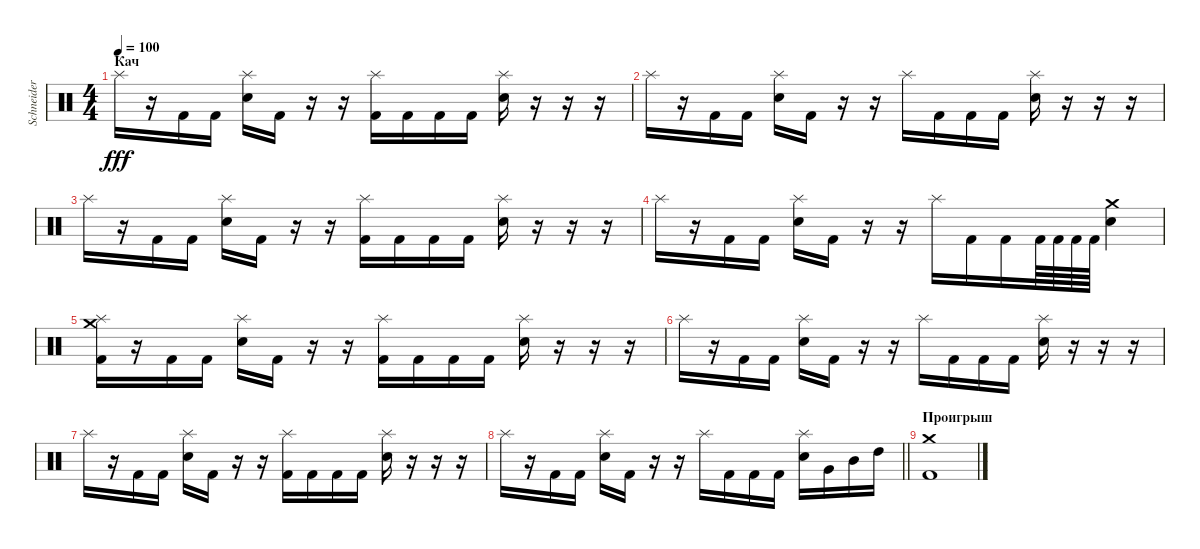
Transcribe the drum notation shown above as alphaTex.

\track ("Schneider" "Schneider") {instrument percussion}
\staff {score}
\articulation defaults
\ts (4 4)
\section ("" "Кач")
\tempo 100
\clef neutral
\ks c "Splash (hit)".16{dy fff}
r.16 "Kick (hit) 2".16 "Kick (hit) 2".16 ("Splash (hit)" "Electric Snare (hit)").16 "Kick (hit) 2".16 r.16 r.16 ("Splash (hit)" "Kick (hit) 2").16 "Kick (hit) 2".16 "Kick (hit) 2".16 "Kick (hit) 2".16 ("Splash (hit)" "Electric Snare (hit)").16 r.16 r.16 r.16 |
"Splash (hit)".16 r.16 "Kick (hit) 2".16 "Kick (hit) 2".16 ("Splash (hit)" "Electric Snare (hit)").16 "Kick (hit) 2".16 r.16 r.16 "Splash (hit)".16 "Kick (hit) 2".16 "Kick (hit) 2".16 "Kick (hit) 2".16 ("Splash (hit)" "Electric Snare (hit)").16 r.16 r.16 r.16 |
"Splash (hit)".16 r.16 "Kick (hit) 2".16 "Kick (hit) 2".16 ("Splash (hit)" "Electric Snare (hit)").16 "Kick (hit) 2".16 r.16 r.16 ("Splash (hit)" "Kick (hit) 2").16 "Kick (hit) 2".16 "Kick (hit) 2".16 "Kick (hit) 2".16 ("Splash (hit)" "Electric Snare (hit)").16 r.16 r.16 r.16 |
"Splash (hit)".16 r.16 "Kick (hit) 2".16 "Kick (hit) 2".16 ("Splash (hit)" "Electric Snare (hit)").16 "Kick (hit) 2".16 r.16 r.16 "Splash (hit)".16 "Kick (hit) 2".16 "Kick (hit) 2".16 "Kick (hit) 2".64 "Kick (hit) 2".64 "Kick (hit) 2".64 "Kick (hit) 2".64 ("Crash medium (hit)" "Electric Snare (hit)").4 |
("Splash (hit)" "Kick (hit) 2" "Crash medium (hit)").16 r.16 "Kick (hit) 2".16 "Kick (hit) 2".16 ("Splash (hit)" "Electric Snare (hit)").16 "Kick (hit) 2".16 r.16 r.16 ("Splash (hit)" "Kick (hit) 2").16 "Kick (hit) 2".16 "Kick (hit) 2".16 "Kick (hit) 2".16 ("Splash (hit)" "Electric Snare (hit)").16 r.16 r.16 r.16 |
"Splash (hit)".16 r.16 "Kick (hit) 2".16 "Kick (hit) 2".16 ("Splash (hit)" "Electric Snare (hit)").16 "Kick (hit) 2".16 r.16 r.16 "Splash (hit)".16 "Kick (hit) 2".16 "Kick (hit) 2".16 "Kick (hit) 2".16 ("Splash (hit)" "Electric Snare (hit)").16 r.16 r.16 r.16 |
"Splash (hit)".16 r.16 "Kick (hit) 2".16 "Kick (hit) 2".16 ("Splash (hit)" "Electric Snare (hit)").16 "Kick (hit) 2".16 r.16 r.16 ("Splash (hit)" "Kick (hit) 2").16 "Kick (hit) 2".16 "Kick (hit) 2".16 "Kick (hit) 2".16 ("Splash (hit)" "Electric Snare (hit)").16 r.16 r.16 r.16 |
\barLineRight lightlight "Splash (hit)".16
r.16 "Kick (hit) 2".16 "Kick (hit) 2".16 ("Splash (hit)" "Electric Snare (hit)").16 "Kick (hit) 2".16 r.16 r.16 "Splash (hit)".16 "Kick (hit) 2".16 "Kick (hit) 2".16 "Kick (hit) 2".16 ("Splash (hit)" "Electric Snare (hit)").16 "Very Low Tom (hit)".16 "Mid Tom (hit)".16 "High Tom (hit)".16 |
\section ("" "Проигрыш")
("Crash medium (hit)" "Kick (hit) 2").1
